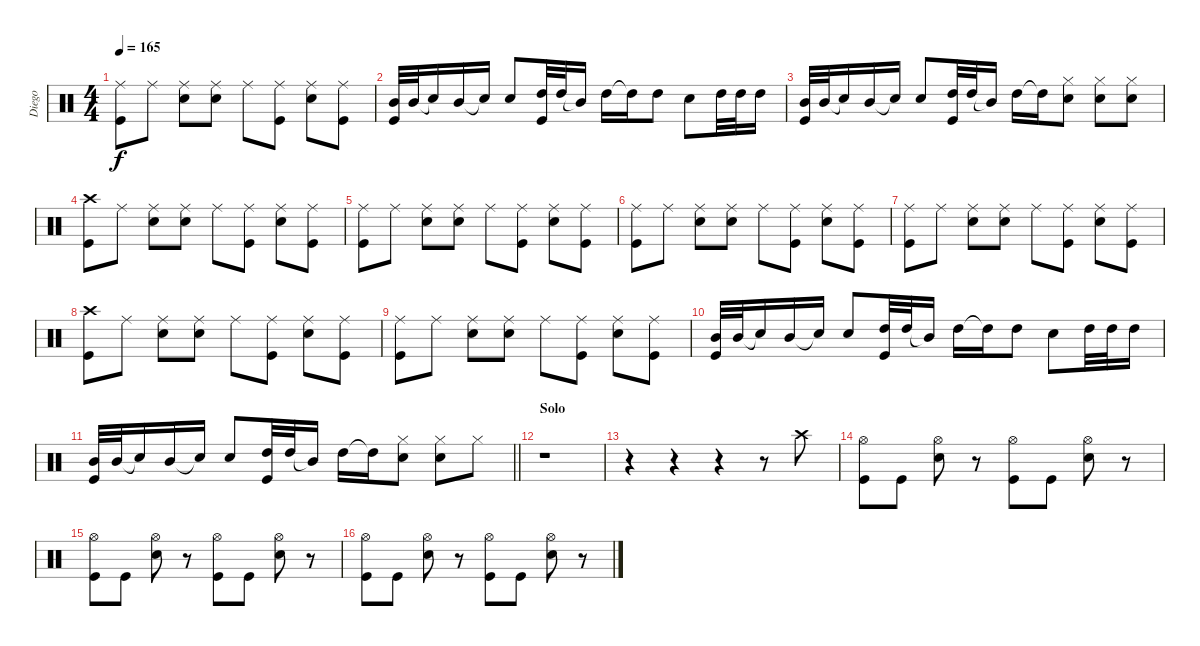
\track ("Diego" "Diego") {instrument percussion}
\staff {score}
\articulation defaults
\ts (4 4)
\tempo 165
\clef neutral
\ks c
("Ride (middle)" "Kick (hit)").8{dy f} "Ride (middle)".8 ("Ride (middle)" "Snare (hit) 2").8 ("Ride (middle)" "Snare (hit) 2").8 "Ride (middle)".8 ("Ride (middle)" "Kick (hit)").8 ("Ride (middle)" "Snare (hit) 2").8 ("Ride (middle)" "Kick (hit)").8 |
("Mid Tom (hit)" "Kick (hit)").32 "Mid Tom (hit)".32 "Snare (hit)"{t}.16 "Mid Tom (hit)".16 "Snare (hit) 2"{t}.16 "Snare (hit) 2".8 ("High Tom (hit)" "Kick (hit)").32 "High Tom (hit)".32 "Mid Tom (hit)"{t}.16 "High Tom (hit)".16 "High Tom (hit)"{t}.16 "High Tom (hit)".8 "Snare (hit) 2".8 "High Tom (hit)".32 "High Tom (hit)".32 "High Tom (hit)".16 |
("Mid Tom (hit)" "Kick (hit)").32 "Mid Tom (hit)".32 "Snare (hit)"{t}.16 "Mid Tom (hit)".16 "Snare (hit) 2"{t}.16 "Snare (hit) 2".8 ("High Tom (hit)" "Kick (hit)").32 "High Tom (hit)".32 "Mid Tom (hit)"{t}.16 "High Tom (hit)".16 "High Tom (hit)"{t}.16 ("Hi-Hat (closed)" "Snare (hit) 2").8 ("Hi-Hat (closed)" "Snare (hit) 2").8 ("Hi-Hat (closed)" "Snare (hit) 2").8 |
("Crash high (hit)" "Kick (hit)").8 "Ride (middle)".8 ("Ride (middle)" "Snare (hit) 2").8 ("Ride (middle)" "Snare (hit) 2").8 "Ride (middle)".8 ("Ride (middle)" "Kick (hit)").8 ("Ride (middle)" "Snare (hit) 2").8 ("Ride (middle)" "Kick (hit)").8 |
("Ride (middle)" "Kick (hit)").8 "Ride (middle)".8 ("Ride (middle)" "Snare (hit) 2").8 ("Ride (middle)" "Snare (hit) 2").8 "Ride (middle)".8 ("Ride (middle)" "Kick (hit)").8 ("Ride (middle)" "Snare (hit) 2").8 ("Ride (middle)" "Kick (hit)").8 |
("Ride (middle)" "Kick (hit)").8 "Ride (middle)".8 ("Ride (middle)" "Snare (hit) 2").8 ("Ride (middle)" "Snare (hit) 2").8 "Ride (middle)".8 ("Ride (middle)" "Kick (hit)").8 ("Ride (middle)" "Snare (hit) 2").8 ("Ride (middle)" "Kick (hit)").8 |
("Ride (middle)" "Kick (hit)").8 "Ride (middle)".8 ("Ride (middle)" "Snare (hit) 2").8 ("Ride (middle)" "Snare (hit) 2").8 "Ride (middle)".8 ("Ride (middle)" "Kick (hit)").8 ("Ride (middle)" "Snare (hit) 2").8 ("Ride (middle)" "Kick (hit)").8 |
("Crash high (hit)" "Kick (hit)").8 "Ride (middle)".8 ("Ride (middle)" "Snare (hit) 2").8 ("Ride (middle)" "Snare (hit) 2").8 "Ride (middle)".8 ("Ride (middle)" "Kick (hit)").8 ("Ride (middle)" "Snare (hit) 2").8 ("Ride (middle)" "Kick (hit)").8 |
("Ride (middle)" "Kick (hit)").8 "Ride (middle)".8 ("Ride (middle)" "Snare (hit) 2").8 ("Ride (middle)" "Snare (hit) 2").8 "Ride (middle)".8 ("Ride (middle)" "Kick (hit)").8 ("Ride (middle)" "Snare (hit) 2").8 ("Ride (middle)" "Kick (hit)").8 |
("Mid Tom (hit)" "Kick (hit)").32 "Mid Tom (hit)".32 "Snare (hit)"{t}.16 "Mid Tom (hit)".16 "Snare (hit) 2"{t}.16 "Snare (hit) 2".8 ("High Tom (hit)" "Kick (hit)").32 "High Tom (hit)".32 "Mid Tom (hit)"{t}.16 "High Tom (hit)".16 "High Tom (hit)"{t}.16 "High Tom (hit)".8 "Snare (hit) 2".8 "High Tom (hit)".32 "High Tom (hit)".32 "High Tom (hit)".16 |
\barLineRight lightlight
("Mid Tom (hit)" "Kick (hit)").32 "Mid Tom (hit)".32 "Snare (hit)"{t}.16 "Mid Tom (hit)".16 "Snare (hit) 2"{t}.16 "Snare (hit) 2".8 ("High Tom (hit)" "Kick (hit)").32 "High Tom (hit)".32 "Mid Tom (hit)"{t}.16 "High Tom (hit)".16 "High Tom (hit)"{t}.16 ("Hi-Hat (closed)" "Snare (hit) 2").8 ("Hi-Hat (closed)" "Snare (hit) 2").8 "Hi-Hat (closed)".8 |
\section ("" "Solo")
r.1 |
r.4 r.4 r.4 r.8 "Crash high (hit)".8 |
("Hi-Hat (open)" "Kick (hit)").8 "Kick (hit)".8 ("Hi-Hat (open)" "Snare (hit) 2").8 r.8 ("Hi-Hat (open)" "Kick (hit)").8 "Kick (hit)".8 ("Hi-Hat (open)" "Snare (hit) 2").8 r.8 |
("Hi-Hat (open)" "Kick (hit)").8 "Kick (hit)".8 ("Hi-Hat (open)" "Snare (hit) 2").8 r.8 ("Hi-Hat (open)" "Kick (hit)").8 "Kick (hit)".8 ("Hi-Hat (open)" "Snare (hit) 2").8 r.8 |
("Hi-Hat (open)" "Kick (hit)").8 "Kick (hit)".8 ("Hi-Hat (open)" "Snare (hit) 2").8 r.8 ("Hi-Hat (open)" "Kick (hit)").8 "Kick (hit)".8 ("Hi-Hat (open)" "Snare (hit) 2").8 r.8
